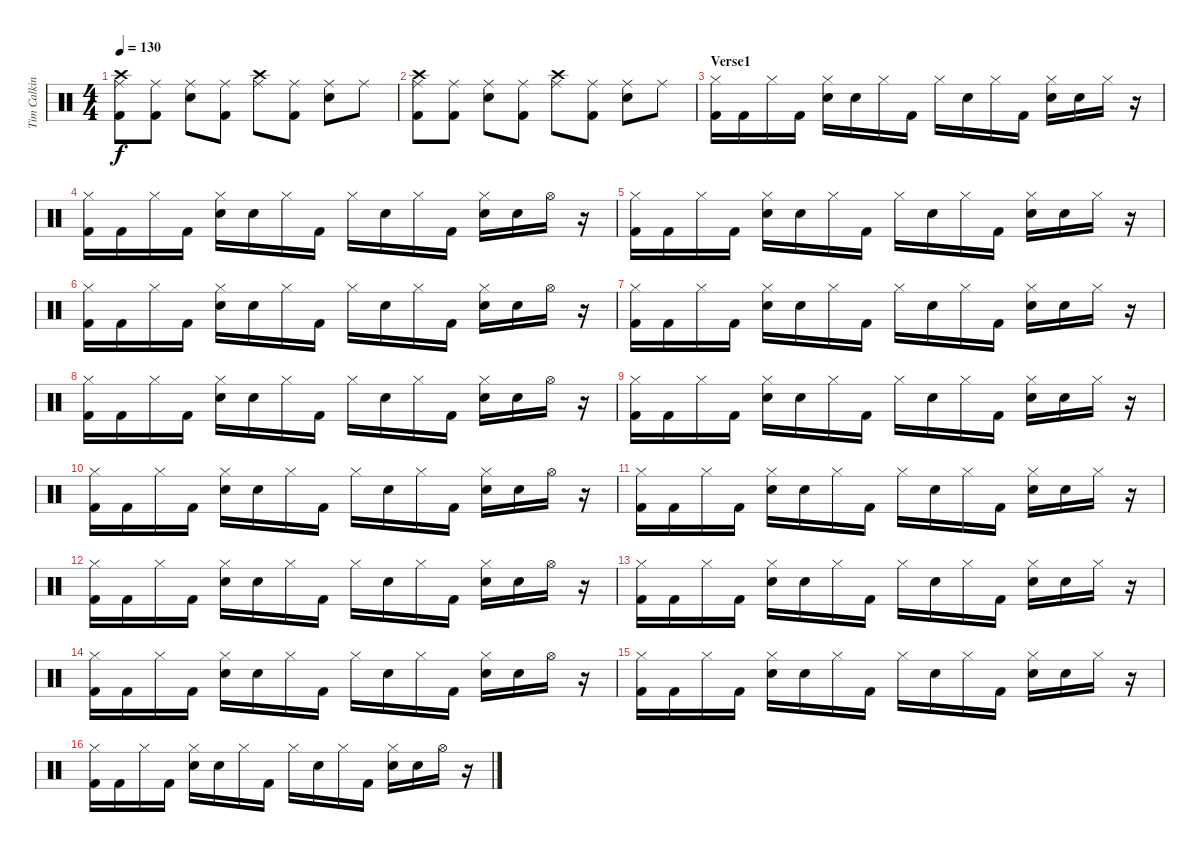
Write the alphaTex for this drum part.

\track ("Tim Calkin" "Tim Calkin") {instrument percussion}
\staff {score}
\articulation defaults
\ts (4 4)
\tempo 130
\clef neutral
\ks c
("Ride (middle)" "Crash high (hit)" "Kick (hit) 2").8{dy f} ("Ride (middle)" "Kick (hit) 2").8 ("Ride (middle)" "Snare (hit) 2").8 ("Ride (middle)" "Kick (hit) 2").8 ("Ride (middle)" "Crash high (hit)").8 ("Ride (middle)" "Kick (hit) 2").8 ("Ride (middle)" "Snare (hit) 2").8 "Ride (middle)".8 |
("Ride (middle)" "Crash high (hit)" "Kick (hit) 2").8 ("Ride (middle)" "Kick (hit) 2").8 ("Ride (middle)" "Snare (hit) 2").8 ("Ride (middle)" "Kick (hit) 2").8 ("Ride (middle)" "Crash high (hit)").8 ("Ride (middle)" "Kick (hit) 2").8 ("Ride (middle)" "Snare (hit) 2").8 "Ride (middle)".8 |
\section ("" "Verse1")
("Hi-Hat (closed)" "Kick (hit) 2").16 "Kick (hit) 2".16 "Hi-Hat (closed)".16 "Kick (hit) 2".16 ("Hi-Hat (closed)" "Snare (hit) 2").16 "Snare (hit) 2".16 "Hi-Hat (closed)".16 "Kick (hit) 2".16 "Hi-Hat (closed)".16 "Snare (hit) 2".16 "Hi-Hat (closed)".16 "Kick (hit) 2".16 ("Hi-Hat (closed)" "Snare (hit) 2").16 "Snare (hit) 2".16 "Hi-Hat (closed)".16 r.16 |
("Hi-Hat (closed)" "Kick (hit) 2").16 "Kick (hit) 2".16 "Hi-Hat (closed)".16 "Kick (hit) 2".16 ("Hi-Hat (closed)" "Snare (hit) 2").16 "Snare (hit) 2".16 "Hi-Hat (closed)".16 "Kick (hit) 2".16 "Hi-Hat (closed)".16 "Snare (hit) 2".16 "Hi-Hat (closed)".16 "Kick (hit) 2".16 ("Hi-Hat (closed)" "Snare (hit) 2").16 "Snare (hit) 2".16 "Hi-Hat (open)".16 r.16 |
("Hi-Hat (closed)" "Kick (hit) 2").16 "Kick (hit) 2".16 "Hi-Hat (closed)".16 "Kick (hit) 2".16 ("Hi-Hat (closed)" "Snare (hit) 2").16 "Snare (hit) 2".16 "Hi-Hat (closed)".16 "Kick (hit) 2".16 "Hi-Hat (closed)".16 "Snare (hit) 2".16 "Hi-Hat (closed)".16 "Kick (hit) 2".16 ("Hi-Hat (closed)" "Snare (hit) 2").16 "Snare (hit) 2".16 "Hi-Hat (closed)".16 r.16 |
("Hi-Hat (closed)" "Kick (hit) 2").16 "Kick (hit) 2".16 "Hi-Hat (closed)".16 "Kick (hit) 2".16 ("Hi-Hat (closed)" "Snare (hit) 2").16 "Snare (hit) 2".16 "Hi-Hat (closed)".16 "Kick (hit) 2".16 "Hi-Hat (closed)".16 "Snare (hit) 2".16 "Hi-Hat (closed)".16 "Kick (hit) 2".16 ("Hi-Hat (closed)" "Snare (hit) 2").16 "Snare (hit) 2".16 "Hi-Hat (open)".16 r.16 |
("Hi-Hat (closed)" "Kick (hit) 2").16 "Kick (hit) 2".16 "Hi-Hat (closed)".16 "Kick (hit) 2".16 ("Hi-Hat (closed)" "Snare (hit) 2").16 "Snare (hit) 2".16 "Hi-Hat (closed)".16 "Kick (hit) 2".16 "Hi-Hat (closed)".16 "Snare (hit) 2".16 "Hi-Hat (closed)".16 "Kick (hit) 2".16 ("Hi-Hat (closed)" "Snare (hit) 2").16 "Snare (hit) 2".16 "Hi-Hat (closed)".16 r.16 |
("Hi-Hat (closed)" "Kick (hit) 2").16 "Kick (hit) 2".16 "Hi-Hat (closed)".16 "Kick (hit) 2".16 ("Hi-Hat (closed)" "Snare (hit) 2").16 "Snare (hit) 2".16 "Hi-Hat (closed)".16 "Kick (hit) 2".16 "Hi-Hat (closed)".16 "Snare (hit) 2".16 "Hi-Hat (closed)".16 "Kick (hit) 2".16 ("Hi-Hat (closed)" "Snare (hit) 2").16 "Snare (hit) 2".16 "Hi-Hat (open)".16 r.16 |
("Hi-Hat (closed)" "Kick (hit) 2").16 "Kick (hit) 2".16 "Hi-Hat (closed)".16 "Kick (hit) 2".16 ("Hi-Hat (closed)" "Snare (hit) 2").16 "Snare (hit) 2".16 "Hi-Hat (closed)".16 "Kick (hit) 2".16 "Hi-Hat (closed)".16 "Snare (hit) 2".16 "Hi-Hat (closed)".16 "Kick (hit) 2".16 ("Hi-Hat (closed)" "Snare (hit) 2").16 "Snare (hit) 2".16 "Hi-Hat (closed)".16 r.16 |
("Hi-Hat (closed)" "Kick (hit) 2").16 "Kick (hit) 2".16 "Hi-Hat (closed)".16 "Kick (hit) 2".16 ("Hi-Hat (closed)" "Snare (hit) 2").16 "Snare (hit) 2".16 "Hi-Hat (closed)".16 "Kick (hit) 2".16 "Hi-Hat (closed)".16 "Snare (hit) 2".16 "Hi-Hat (closed)".16 "Kick (hit) 2".16 ("Hi-Hat (closed)" "Snare (hit) 2").16 "Snare (hit) 2".16 "Hi-Hat (open)".16 r.16 |
("Hi-Hat (closed)" "Kick (hit) 2").16 "Kick (hit) 2".16 "Hi-Hat (closed)".16 "Kick (hit) 2".16 ("Hi-Hat (closed)" "Snare (hit) 2").16 "Snare (hit) 2".16 "Hi-Hat (closed)".16 "Kick (hit) 2".16 "Hi-Hat (closed)".16 "Snare (hit) 2".16 "Hi-Hat (closed)".16 "Kick (hit) 2".16 ("Hi-Hat (closed)" "Snare (hit) 2").16 "Snare (hit) 2".16 "Hi-Hat (closed)".16 r.16 |
("Hi-Hat (closed)" "Kick (hit) 2").16 "Kick (hit) 2".16 "Hi-Hat (closed)".16 "Kick (hit) 2".16 ("Hi-Hat (closed)" "Snare (hit) 2").16 "Snare (hit) 2".16 "Hi-Hat (closed)".16 "Kick (hit) 2".16 "Hi-Hat (closed)".16 "Snare (hit) 2".16 "Hi-Hat (closed)".16 "Kick (hit) 2".16 ("Hi-Hat (closed)" "Snare (hit) 2").16 "Snare (hit) 2".16 "Hi-Hat (open)".16 r.16 |
("Hi-Hat (closed)" "Kick (hit) 2").16 "Kick (hit) 2".16 "Hi-Hat (closed)".16 "Kick (hit) 2".16 ("Hi-Hat (closed)" "Snare (hit) 2").16 "Snare (hit) 2".16 "Hi-Hat (closed)".16 "Kick (hit) 2".16 "Hi-Hat (closed)".16 "Snare (hit) 2".16 "Hi-Hat (closed)".16 "Kick (hit) 2".16 ("Hi-Hat (closed)" "Snare (hit) 2").16 "Snare (hit) 2".16 "Hi-Hat (closed)".16 r.16 |
("Hi-Hat (closed)" "Kick (hit) 2").16 "Kick (hit) 2".16 "Hi-Hat (closed)".16 "Kick (hit) 2".16 ("Hi-Hat (closed)" "Snare (hit) 2").16 "Snare (hit) 2".16 "Hi-Hat (closed)".16 "Kick (hit) 2".16 "Hi-Hat (closed)".16 "Snare (hit) 2".16 "Hi-Hat (closed)".16 "Kick (hit) 2".16 ("Hi-Hat (closed)" "Snare (hit) 2").16 "Snare (hit) 2".16 "Hi-Hat (open)".16 r.16 |
("Hi-Hat (closed)" "Kick (hit) 2").16 "Kick (hit) 2".16 "Hi-Hat (closed)".16 "Kick (hit) 2".16 ("Hi-Hat (closed)" "Snare (hit) 2").16 "Snare (hit) 2".16 "Hi-Hat (closed)".16 "Kick (hit) 2".16 "Hi-Hat (closed)".16 "Snare (hit) 2".16 "Hi-Hat (closed)".16 "Kick (hit) 2".16 ("Hi-Hat (closed)" "Snare (hit) 2").16 "Snare (hit) 2".16 "Hi-Hat (closed)".16 r.16 |
("Hi-Hat (closed)" "Kick (hit) 2").16 "Kick (hit) 2".16 "Hi-Hat (closed)".16 "Kick (hit) 2".16 ("Hi-Hat (closed)" "Snare (hit) 2").16 "Snare (hit) 2".16 "Hi-Hat (closed)".16 "Kick (hit) 2".16 "Hi-Hat (closed)".16 "Snare (hit) 2".16 "Hi-Hat (closed)".16 "Kick (hit) 2".16 ("Hi-Hat (closed)" "Snare (hit) 2").16 "Snare (hit) 2".16 "Hi-Hat (open)".16 r.16
